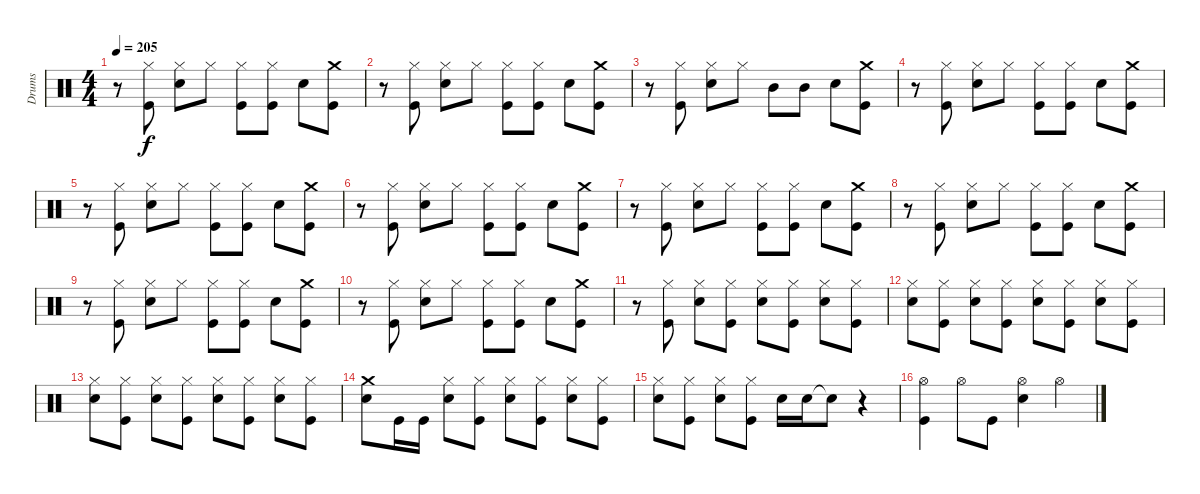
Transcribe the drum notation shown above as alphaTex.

\track ("Drums" "Drums") {instrument percussion}
\staff {score}
\articulation defaults
\ts (4 4)
\tempo 205
\clef neutral
\ks c
r.8{dy f} ("Hi-Hat (closed)" "Kick (hit)").8 ("Hi-Hat (closed)" "Electric Snare (hit)").8 "Hi-Hat (closed)".8 ("Hi-Hat (closed)" "Kick (hit)").8 ("Hi-Hat (closed)" "Kick (hit)").8 "Electric Snare (hit)".8 ("Crash medium (hit)" "Kick (hit)").8 |
r.8 ("Hi-Hat (closed)" "Kick (hit)").8 ("Hi-Hat (closed)" "Electric Snare (hit)").8 "Hi-Hat (closed)".8 ("Hi-Hat (closed)" "Kick (hit)").8 ("Hi-Hat (closed)" "Kick (hit)").8 "Electric Snare (hit)".8 ("Crash medium (hit)" "Kick (hit)").8 |
r.8 ("Hi-Hat (closed)" "Kick (hit)").8 ("Hi-Hat (closed)" "Electric Snare (hit)").8 "Hi-Hat (closed)".8 "Mid Tom (hit)".8 "Mid Tom (hit)".8 "Electric Snare (hit)".8 ("Crash medium (hit)" "Kick (hit)").8 |
r.8 ("Hi-Hat (closed)" "Kick (hit)").8 ("Hi-Hat (closed)" "Electric Snare (hit)").8 "Hi-Hat (closed)".8 ("Hi-Hat (closed)" "Kick (hit)").8 ("Hi-Hat (closed)" "Kick (hit)").8 "Electric Snare (hit)".8 ("Crash medium (hit)" "Kick (hit)").8 |
r.8 ("Hi-Hat (closed)" "Kick (hit)").8 ("Hi-Hat (closed)" "Electric Snare (hit)").8 "Hi-Hat (closed)".8 ("Hi-Hat (closed)" "Kick (hit)").8 ("Hi-Hat (closed)" "Kick (hit)").8 "Electric Snare (hit)".8 ("Crash medium (hit)" "Kick (hit)").8 |
r.8 ("Hi-Hat (closed)" "Kick (hit)").8 ("Hi-Hat (closed)" "Electric Snare (hit)").8 "Hi-Hat (closed)".8 ("Hi-Hat (closed)" "Kick (hit)").8 ("Hi-Hat (closed)" "Kick (hit)").8 "Electric Snare (hit)".8 ("Crash medium (hit)" "Kick (hit)").8 |
r.8 ("Hi-Hat (closed)" "Kick (hit)").8 ("Hi-Hat (closed)" "Electric Snare (hit)").8 "Hi-Hat (closed)".8 ("Hi-Hat (closed)" "Kick (hit)").8 ("Hi-Hat (closed)" "Kick (hit)").8 "Electric Snare (hit)".8 ("Crash medium (hit)" "Kick (hit)").8 |
r.8 ("Hi-Hat (closed)" "Kick (hit)").8 ("Hi-Hat (closed)" "Electric Snare (hit)").8 "Hi-Hat (closed)".8 ("Hi-Hat (closed)" "Kick (hit)").8 ("Hi-Hat (closed)" "Kick (hit)").8 "Electric Snare (hit)".8 ("Crash medium (hit)" "Kick (hit)").8 |
r.8 ("Hi-Hat (closed)" "Kick (hit)").8 ("Hi-Hat (closed)" "Electric Snare (hit)").8 "Hi-Hat (closed)".8 ("Hi-Hat (closed)" "Kick (hit)").8 ("Hi-Hat (closed)" "Kick (hit)").8 "Electric Snare (hit)".8 ("Crash medium (hit)" "Kick (hit)").8 |
r.8 ("Hi-Hat (closed)" "Kick (hit)").8 ("Hi-Hat (closed)" "Electric Snare (hit)").8 "Hi-Hat (closed)".8 ("Hi-Hat (closed)" "Kick (hit)").8 ("Hi-Hat (closed)" "Kick (hit)").8 "Electric Snare (hit)".8 ("Crash medium (hit)" "Kick (hit)").8 |
r.8 ("Hi-Hat (closed)" "Kick (hit)").8 ("Hi-Hat (closed)" "Electric Snare (hit)").8 ("Hi-Hat (closed)" "Kick (hit)").8 ("Hi-Hat (closed)" "Electric Snare (hit)").8 ("Hi-Hat (closed)" "Kick (hit)").8 ("Hi-Hat (closed)" "Electric Snare (hit)").8 ("Hi-Hat (closed)" "Kick (hit)").8 |
("Hi-Hat (closed)" "Electric Snare (hit)").8 ("Hi-Hat (closed)" "Kick (hit)").8 ("Hi-Hat (closed)" "Electric Snare (hit)").8 ("Hi-Hat (closed)" "Kick (hit)").8 ("Hi-Hat (closed)" "Electric Snare (hit)").8 ("Hi-Hat (closed)" "Kick (hit)").8 ("Hi-Hat (closed)" "Electric Snare (hit)").8 ("Hi-Hat (closed)" "Kick (hit)").8 |
("Hi-Hat (closed)" "Electric Snare (hit)").8 ("Hi-Hat (closed)" "Kick (hit)").8 ("Hi-Hat (closed)" "Electric Snare (hit)").8 ("Hi-Hat (closed)" "Kick (hit)").8 ("Hi-Hat (closed)" "Electric Snare (hit)").8 ("Hi-Hat (closed)" "Kick (hit)").8 ("Hi-Hat (closed)" "Electric Snare (hit)").8 ("Hi-Hat (closed)" "Kick (hit)").8 |
("Crash medium (hit)" "Electric Snare (hit)").8 "Kick (hit)".16 "Kick (hit)".16 ("Hi-Hat (closed)" "Electric Snare (hit)").8 ("Hi-Hat (closed)" "Kick (hit)").8 ("Hi-Hat (closed)" "Electric Snare (hit)").8 ("Hi-Hat (closed)" "Kick (hit)").8 ("Hi-Hat (closed)" "Electric Snare (hit)").8 ("Hi-Hat (closed)" "Kick (hit)").8 |
("Hi-Hat (closed)" "Electric Snare (hit)").8 ("Hi-Hat (closed)" "Kick (hit)").8 ("Hi-Hat (closed)" "Electric Snare (hit)").8 ("Hi-Hat (closed)" "Kick (hit)").8 "Electric Snare (hit)".16 "Electric Snare (hit)".16 "Snare (hit)"{t}.8 r.4 |
("Hi-Hat (open)" "Kick (hit)").4 "Hi-Hat (open)".8 "Kick (hit)".8 ("Hi-Hat (open)" "Electric Snare (hit)").4 "Hi-Hat (open)".4
